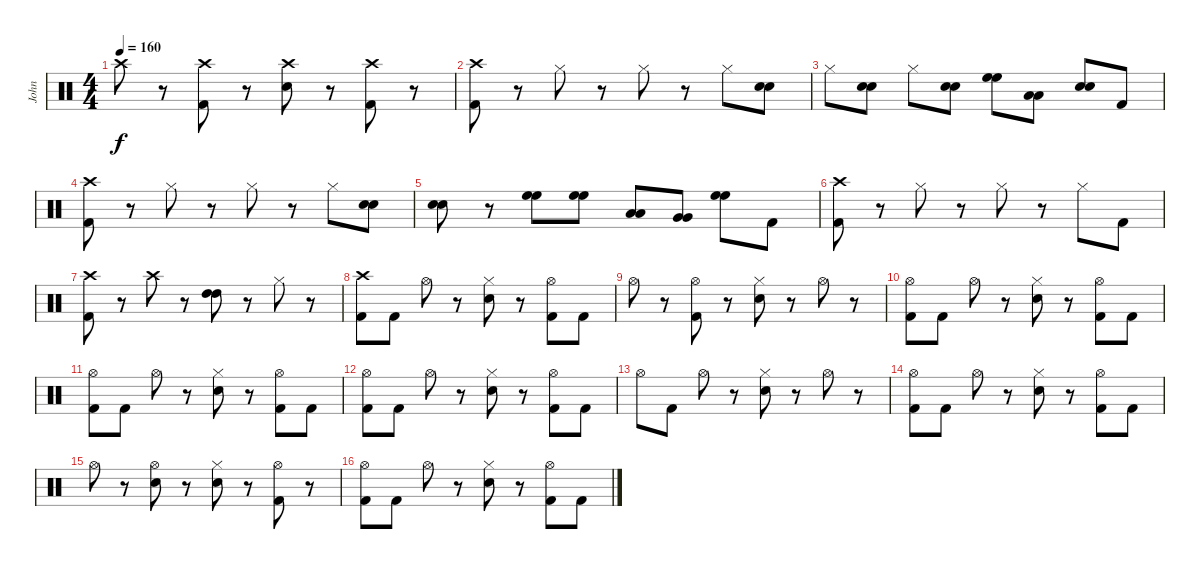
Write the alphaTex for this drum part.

\track ("John" "John") {instrument percussion}
\staff {score}
\articulation defaults
\ts (4 4)
\tempo 160
\clef neutral
\ks c "Crash high (hit)".8{dy f}
r.8 ("Crash high (hit)" "Kick (hit) 2").8 r.8 ("Crash high (hit)" "Snare (hit) 2").8 r.8 ("Crash high (hit)" "Kick (hit) 2").8 r.8 |
("Crash high (hit)" "Kick (hit) 2").8 r.8 "Hi-Hat (closed)".8 r.8 "Hi-Hat (closed)".8 r.8 "Hi-Hat (closed)".8 ("Snare (hit) 2" "Snare (hit) 2").8 |
"Hi-Hat (closed)".8 ("Snare (hit) 2" "Snare (hit) 2").8 "Hi-Hat (closed)".8 ("Snare (hit) 2" "Snare (hit) 2").8 ("High Floor Tom (hit)" "High Floor Tom (hit)").8 ("Low Tom (hit)" "Low Tom (hit)").8 ("Snare (hit) 2" "Snare (hit) 2").8 "Kick (hit) 2".8 |
("Crash high (hit)" "Kick (hit) 2").8 r.8 "Hi-Hat (closed)".8 r.8 "Hi-Hat (closed)".8 r.8 "Hi-Hat (closed)".8 ("Snare (hit) 2" "Snare (hit) 2").8 |
("Snare (hit) 2" "Snare (hit) 2").8 r.8 ("High Floor Tom (hit)" "High Floor Tom (hit)").8 ("High Floor Tom (hit)" "High Floor Tom (hit)").8 ("Low Tom (hit)" "Low Tom (hit)").8 ("Very Low Tom (hit)" "Very Low Tom (hit)").8 ("High Floor Tom (hit)" "High Floor Tom (hit)").8 "Kick (hit) 2".8 |
("Crash high (hit)" "Kick (hit) 2").8 r.8 "Hi-Hat (closed)".8 r.8 "Hi-Hat (closed)".8 r.8 "Hi-Hat (closed)".8 "Kick (hit) 2".8 |
("Crash high (hit)" "Kick (hit) 2").8 r.8 "Crash high (hit)".8 r.8 ("High Tom (hit)" "High Tom (hit)").8 r.8 "Hi-Hat (closed)".8 r.8 |
("Crash high (hit)" "Kick (hit) 2").8 "Kick (hit) 2".8 "Hi-Hat (open)".8 r.8 ("Hi-Hat (closed)" "Snare (hit) 2").8 r.8 ("Hi-Hat (open)" "Kick (hit) 2").8 "Kick (hit) 2".8 |
"Hi-Hat (open)".8 r.8 ("Hi-Hat (open)" "Kick (hit) 2").8 r.8 ("Hi-Hat (closed)" "Snare (hit) 2").8 r.8 "Hi-Hat (open)".8 r.8 |
("Hi-Hat (open)" "Kick (hit) 2").8 "Kick (hit) 2".8 "Hi-Hat (open)".8 r.8 ("Hi-Hat (closed)" "Snare (hit) 2").8 r.8 ("Hi-Hat (open)" "Kick (hit) 2").8 "Kick (hit) 2".8 |
("Hi-Hat (open)" "Kick (hit) 2").8 "Kick (hit) 2".8 "Hi-Hat (open)".8 r.8 ("Hi-Hat (closed)" "Snare (hit) 2").8 r.8 ("Hi-Hat (open)" "Kick (hit) 2").8 "Kick (hit) 2".8 |
("Hi-Hat (open)" "Kick (hit) 2").8 "Kick (hit) 2".8 "Hi-Hat (open)".8 r.8 ("Hi-Hat (closed)" "Snare (hit) 2").8 r.8 ("Hi-Hat (open)" "Kick (hit) 2").8 "Kick (hit) 2".8 |
"Hi-Hat (open)".8 "Kick (hit) 2".8 "Hi-Hat (open)".8 r.8 ("Hi-Hat (closed)" "Snare (hit) 2").8 r.8 "Hi-Hat (open)".8 r.8 |
("Hi-Hat (open)" "Kick (hit) 2").8 "Kick (hit) 2".8 "Hi-Hat (open)".8 r.8 ("Hi-Hat (closed)" "Snare (hit) 2").8 r.8 ("Hi-Hat (open)" "Kick (hit) 2").8 "Kick (hit) 2".8 |
"Hi-Hat (open)".8 r.8 ("Hi-Hat (open)" "Snare (hit) 2").8 r.8 ("Hi-Hat (closed)" "Snare (hit) 2").8 r.8 ("Hi-Hat (open)" "Kick (hit) 2").8 r.8 |
("Hi-Hat (open)" "Kick (hit) 2").8 "Kick (hit) 2".8 "Hi-Hat (open)".8 r.8 ("Hi-Hat (closed)" "Snare (hit) 2").8 r.8 ("Hi-Hat (open)" "Kick (hit) 2").8 "Kick (hit) 2".8
